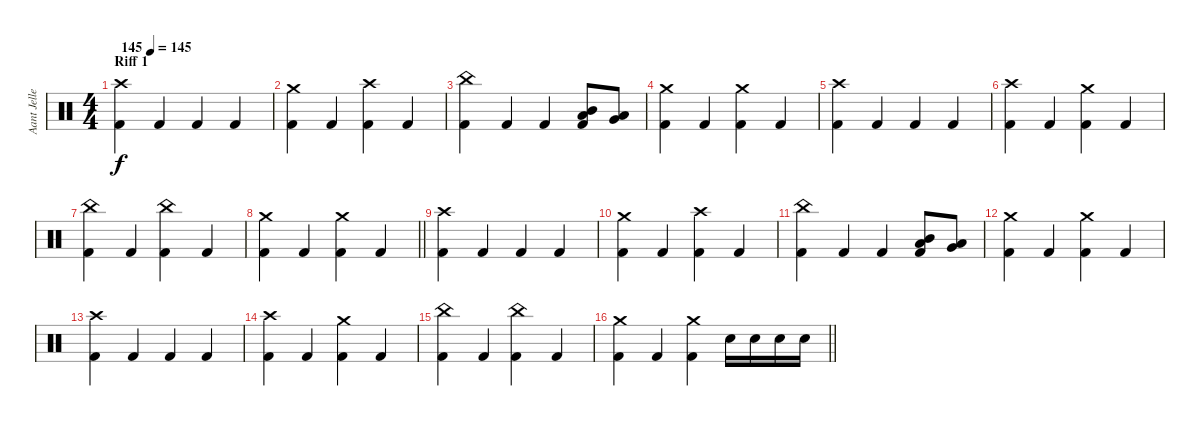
\track ("Aant Jelle" "Aant Jelle") {instrument percussion}
\staff {score}
\articulation defaults
\ts (4 4)
\section ("" "Riff 1")
\tempo (145 "145")
\clef neutral
\ks c
("Crash high (hit)" "Kick (hit) 2").4{dy f} "Kick (hit) 2".4 "Kick (hit) 2".4 "Kick (hit) 2".4 |
("Crash medium (hit)" "Kick (hit) 2").4 "Kick (hit) 2".4 ("Crash high (hit)" "Kick (hit) 2").4 "Kick (hit) 2".4 |
("China (hit)" "Kick (hit) 2").4 "Kick (hit) 2".4 "Kick (hit) 2".4 ("Mid Tom (hit)" "Low Tom (hit)" "Kick (hit) 2").8 ("Low Tom (hit)" "Very Low Tom (hit)").8 |
("Crash medium (hit)" "Kick (hit) 2").4 "Kick (hit) 2".4 ("Crash medium (hit)" "Kick (hit) 2").4 "Kick (hit) 2".4 |
("Crash high (hit)" "Kick (hit) 2").4 "Kick (hit) 2".4 "Kick (hit) 2".4 "Kick (hit) 2".4 |
("Crash high (hit)" "Kick (hit) 2").4 "Kick (hit) 2".4 ("Crash medium (hit)" "Kick (hit) 2").4 "Kick (hit) 2".4 |
("China (hit)" "Kick (hit) 2").4 "Kick (hit) 2".4 ("China (hit)" "Kick (hit) 2").4 "Kick (hit) 2".4 |
\barLineRight lightlight
("Crash medium (hit)" "Kick (hit) 2").4 "Kick (hit) 2".4 ("Crash medium (hit)" "Kick (hit) 2").4 "Kick (hit) 2".4 |
("Crash high (hit)" "Kick (hit) 2").4 "Kick (hit) 2".4 "Kick (hit) 2".4 "Kick (hit) 2".4 |
("Crash medium (hit)" "Kick (hit) 2").4 "Kick (hit) 2".4 ("Crash high (hit)" "Kick (hit) 2").4 "Kick (hit) 2".4 |
("China (hit)" "Kick (hit) 2").4 "Kick (hit) 2".4 "Kick (hit) 2".4 ("Mid Tom (hit)" "Low Tom (hit)" "Kick (hit) 2").8 ("Low Tom (hit)" "Very Low Tom (hit)").8 |
("Crash medium (hit)" "Kick (hit) 2").4 "Kick (hit) 2".4 ("Crash medium (hit)" "Kick (hit) 2").4 "Kick (hit) 2".4 |
("Crash high (hit)" "Kick (hit) 2").4 "Kick (hit) 2".4 "Kick (hit) 2".4 "Kick (hit) 2".4 |
("Crash high (hit)" "Kick (hit) 2").4 "Kick (hit) 2".4 ("Crash medium (hit)" "Kick (hit) 2").4 "Kick (hit) 2".4 |
("China (hit)" "Kick (hit) 2").4 "Kick (hit) 2".4 ("China (hit)" "Kick (hit) 2").4 "Kick (hit) 2".4 |
\barLineRight lightlight
("Crash medium (hit)" "Kick (hit) 2").4 "Kick (hit) 2".4 ("Crash medium (hit)" "Kick (hit) 2").4 "Electric Snare (hit)".16 "Electric Snare (hit)".16 "Electric Snare (hit)".16 "Electric Snare (hit)".16
